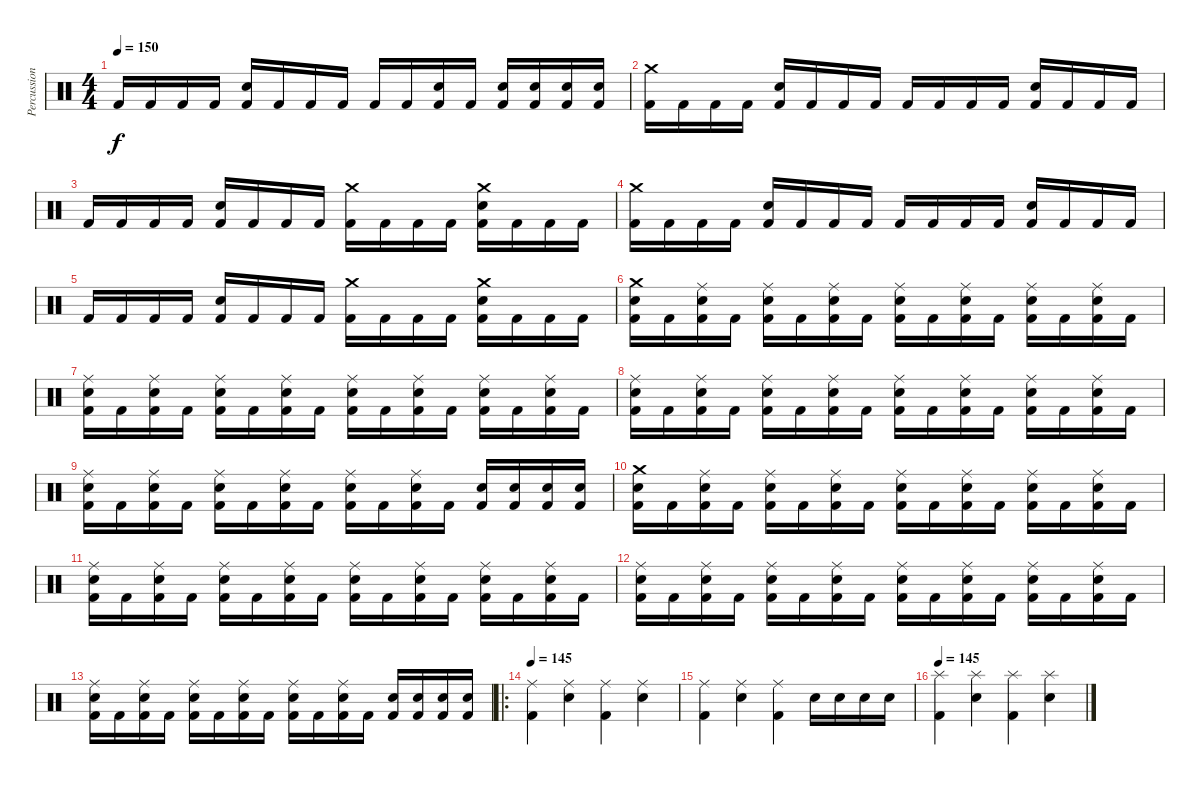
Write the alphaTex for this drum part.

\track ("Percussions" "Percussion") {instrument percussion}
\staff {score}
\articulation defaults
\ts (4 4)
\tempo 150
\clef neutral
\ks c "Kick (hit) 2".16{dy f} "Kick (hit) 2".16 "Kick (hit) 2".16 "Kick (hit) 2".16
("Snare (hit) 2" "Kick (hit) 2").16 "Kick (hit) 2".16 "Kick (hit) 2".16 "Kick (hit) 2".16 "Kick (hit) 2".16 "Kick (hit) 2".16 ("Snare (hit) 2" "Kick (hit) 2").16 "Kick (hit) 2".16 ("Snare (hit) 2" "Kick (hit) 2").16 ("Snare (hit) 2" "Kick (hit) 2").16 ("Snare (hit) 2" "Kick (hit) 2").16 ("Snare (hit) 2" "Kick (hit) 2").16 |
("Crash medium (hit)" "Kick (hit) 2").16 "Kick (hit) 2".16 "Kick (hit) 2".16 "Kick (hit) 2".16 ("Snare (hit) 2" "Kick (hit) 2").16 "Kick (hit) 2".16 "Kick (hit) 2".16 "Kick (hit) 2".16 "Kick (hit) 2".16 "Kick (hit) 2".16 "Kick (hit) 2".16 "Kick (hit) 2".16 ("Snare (hit) 2" "Kick (hit) 2").16 "Kick (hit) 2".16 "Kick (hit) 2".16 "Kick (hit) 2".16 |
"Kick (hit) 2".16 "Kick (hit) 2".16 "Kick (hit) 2".16 "Kick (hit) 2".16 ("Snare (hit) 2" "Kick (hit) 2").16 "Kick (hit) 2".16 "Kick (hit) 2".16 "Kick (hit) 2".16 ("Crash medium (hit)" "Kick (hit) 2").16 "Kick (hit) 2".16 "Kick (hit) 2".16 "Kick (hit) 2".16 ("Crash medium (hit)" "Snare (hit) 2" "Kick (hit) 2").16 "Kick (hit) 2".16 "Kick (hit) 2".16 "Kick (hit) 2".16 |
("Crash medium (hit)" "Kick (hit) 2").16 "Kick (hit) 2".16 "Kick (hit) 2".16 "Kick (hit) 2".16 ("Snare (hit) 2" "Kick (hit) 2").16 "Kick (hit) 2".16 "Kick (hit) 2".16 "Kick (hit) 2".16 "Kick (hit) 2".16 "Kick (hit) 2".16 "Kick (hit) 2".16 "Kick (hit) 2".16 ("Snare (hit) 2" "Kick (hit) 2").16 "Kick (hit) 2".16 "Kick (hit) 2".16 "Kick (hit) 2".16 |
"Kick (hit) 2".16 "Kick (hit) 2".16 "Kick (hit) 2".16 "Kick (hit) 2".16 ("Snare (hit) 2" "Kick (hit) 2").16 "Kick (hit) 2".16 "Kick (hit) 2".16 "Kick (hit) 2".16 ("Crash medium (hit)" "Kick (hit) 2").16 "Kick (hit) 2".16 "Kick (hit) 2".16 "Kick (hit) 2".16 ("Crash medium (hit)" "Snare (hit) 2" "Kick (hit) 2").16 "Kick (hit) 2".16 "Kick (hit) 2".16 "Kick (hit) 2".16 |
("Crash medium (hit)" "Snare (hit) 2" "Kick (hit) 2").16 "Kick (hit) 2".16 ("Ride (middle)" "Snare (hit) 2" "Kick (hit) 2").16 "Kick (hit) 2".16 ("Ride (middle)" "Snare (hit) 2" "Kick (hit) 2").16 "Kick (hit) 2".16 ("Ride (middle)" "Snare (hit) 2" "Kick (hit) 2").16 "Kick (hit) 2".16 ("Ride (middle)" "Snare (hit) 2" "Kick (hit) 2").16 "Kick (hit) 2".16 ("Ride (middle)" "Snare (hit) 2" "Kick (hit) 2").16 "Kick (hit) 2".16 ("Ride (middle)" "Snare (hit) 2" "Kick (hit) 2").16 "Kick (hit) 2".16 ("Ride (middle)" "Snare (hit) 2" "Kick (hit) 2").16 "Kick (hit) 2".16 |
("Ride (middle)" "Snare (hit) 2" "Kick (hit) 2").16 "Kick (hit) 2".16 ("Ride (middle)" "Snare (hit) 2" "Kick (hit) 2").16 "Kick (hit) 2".16 ("Ride (middle)" "Snare (hit) 2" "Kick (hit) 2").16 "Kick (hit) 2".16 ("Ride (middle)" "Snare (hit) 2" "Kick (hit) 2").16 "Kick (hit) 2".16 ("Ride (middle)" "Snare (hit) 2" "Kick (hit) 2").16 "Kick (hit) 2".16 ("Ride (middle)" "Snare (hit) 2" "Kick (hit) 2").16 "Kick (hit) 2".16 ("Ride (middle)" "Snare (hit) 2" "Kick (hit) 2").16 "Kick (hit) 2".16 ("Ride (middle)" "Snare (hit) 2" "Kick (hit) 2").16 "Kick (hit) 2".16 |
("Ride (middle)" "Snare (hit) 2" "Kick (hit) 2").16 "Kick (hit) 2".16 ("Ride (middle)" "Snare (hit) 2" "Kick (hit) 2").16 "Kick (hit) 2".16 ("Ride (middle)" "Snare (hit) 2" "Kick (hit) 2").16 "Kick (hit) 2".16 ("Ride (middle)" "Snare (hit) 2" "Kick (hit) 2").16 "Kick (hit) 2".16 ("Ride (middle)" "Snare (hit) 2" "Kick (hit) 2").16 "Kick (hit) 2".16 ("Ride (middle)" "Snare (hit) 2" "Kick (hit) 2").16 "Kick (hit) 2".16 ("Ride (middle)" "Snare (hit) 2" "Kick (hit) 2").16 "Kick (hit) 2".16 ("Ride (middle)" "Snare (hit) 2" "Kick (hit) 2").16 "Kick (hit) 2".16 |
("Ride (middle)" "Snare (hit) 2" "Kick (hit) 2").16 "Kick (hit) 2".16 ("Ride (middle)" "Snare (hit) 2" "Kick (hit) 2").16 "Kick (hit) 2".16 ("Ride (middle)" "Snare (hit) 2" "Kick (hit) 2").16 "Kick (hit) 2".16 ("Ride (middle)" "Snare (hit) 2" "Kick (hit) 2").16 "Kick (hit) 2".16 ("Ride (middle)" "Snare (hit) 2" "Kick (hit) 2").16 "Kick (hit) 2".16 ("Ride (middle)" "Snare (hit) 2" "Kick (hit) 2").16 "Kick (hit) 2".16 ("Snare (hit) 2" "Kick (hit) 2").16 ("Snare (hit) 2" "Kick (hit) 2").16 ("Snare (hit) 2" "Kick (hit) 2").16 ("Snare (hit) 2" "Kick (hit) 2").16 |
("Crash medium (hit)" "Snare (hit) 2" "Kick (hit) 2").16 "Kick (hit) 2".16 ("Ride (middle)" "Snare (hit) 2" "Kick (hit) 2").16 "Kick (hit) 2".16 ("Ride (middle)" "Snare (hit) 2" "Kick (hit) 2").16 "Kick (hit) 2".16 ("Ride (middle)" "Snare (hit) 2" "Kick (hit) 2").16 "Kick (hit) 2".16 ("Ride (middle)" "Snare (hit) 2" "Kick (hit) 2").16 "Kick (hit) 2".16 ("Ride (middle)" "Snare (hit) 2" "Kick (hit) 2").16 "Kick (hit) 2".16 ("Ride (middle)" "Snare (hit) 2" "Kick (hit) 2").16 "Kick (hit) 2".16 ("Ride (middle)" "Snare (hit) 2" "Kick (hit) 2").16 "Kick (hit) 2".16 |
("Ride (middle)" "Snare (hit) 2" "Kick (hit) 2").16 "Kick (hit) 2".16 ("Ride (middle)" "Snare (hit) 2" "Kick (hit) 2").16 "Kick (hit) 2".16 ("Ride (middle)" "Snare (hit) 2" "Kick (hit) 2").16 "Kick (hit) 2".16 ("Ride (middle)" "Snare (hit) 2" "Kick (hit) 2").16 "Kick (hit) 2".16 ("Ride (middle)" "Snare (hit) 2" "Kick (hit) 2").16 "Kick (hit) 2".16 ("Ride (middle)" "Snare (hit) 2" "Kick (hit) 2").16 "Kick (hit) 2".16 ("Ride (middle)" "Snare (hit) 2" "Kick (hit) 2").16 "Kick (hit) 2".16 ("Ride (middle)" "Snare (hit) 2" "Kick (hit) 2").16 "Kick (hit) 2".16 |
("Ride (middle)" "Snare (hit) 2" "Kick (hit) 2").16 "Kick (hit) 2".16 ("Ride (middle)" "Snare (hit) 2" "Kick (hit) 2").16 "Kick (hit) 2".16 ("Ride (middle)" "Snare (hit) 2" "Kick (hit) 2").16 "Kick (hit) 2".16 ("Ride (middle)" "Snare (hit) 2" "Kick (hit) 2").16 "Kick (hit) 2".16 ("Ride (middle)" "Snare (hit) 2" "Kick (hit) 2").16 "Kick (hit) 2".16 ("Ride (middle)" "Snare (hit) 2" "Kick (hit) 2").16 "Kick (hit) 2".16 ("Ride (middle)" "Snare (hit) 2" "Kick (hit) 2").16 "Kick (hit) 2".16 ("Ride (middle)" "Snare (hit) 2" "Kick (hit) 2").16 "Kick (hit) 2".16 |
("Ride (middle)" "Snare (hit) 2" "Kick (hit) 2").16 "Kick (hit) 2".16 ("Ride (middle)" "Snare (hit) 2" "Kick (hit) 2").16 "Kick (hit) 2".16 ("Ride (middle)" "Snare (hit) 2" "Kick (hit) 2").16 "Kick (hit) 2".16 ("Ride (middle)" "Snare (hit) 2" "Kick (hit) 2").16 "Kick (hit) 2".16 ("Ride (middle)" "Snare (hit) 2" "Kick (hit) 2").16 "Kick (hit) 2".16 ("Ride (middle)" "Snare (hit) 2" "Kick (hit) 2").16 "Kick (hit) 2".16 ("Snare (hit) 2" "Kick (hit) 2").16 ("Snare (hit) 2" "Kick (hit) 2").16 ("Snare (hit) 2" "Kick (hit) 2").16 ("Snare (hit) 2" "Kick (hit) 2").16 |
\ro
\tempo 145
("Ride (middle)" "Kick (hit) 2").4 ("Ride (middle)" "Snare (hit) 2").4 ("Ride (middle)" "Kick (hit) 2").4 ("Ride (middle)" "Snare (hit) 2").4 |
("Ride (middle)" "Kick (hit) 2").4 ("Ride (middle)" "Snare (hit) 2").4 ("Ride (middle)" "Kick (hit) 2").4 "Snare (hit) 2".16 "Snare (hit) 2".16 "Snare (hit) 2".16 "Snare (hit) 2".16 |
\tempo 145
("Splash (hit)" "Kick (hit) 2").4 ("Splash (hit)" "Snare (hit) 2").4 ("Splash (hit)" "Kick (hit) 2").4 ("Splash (hit)" "Snare (hit) 2").4
